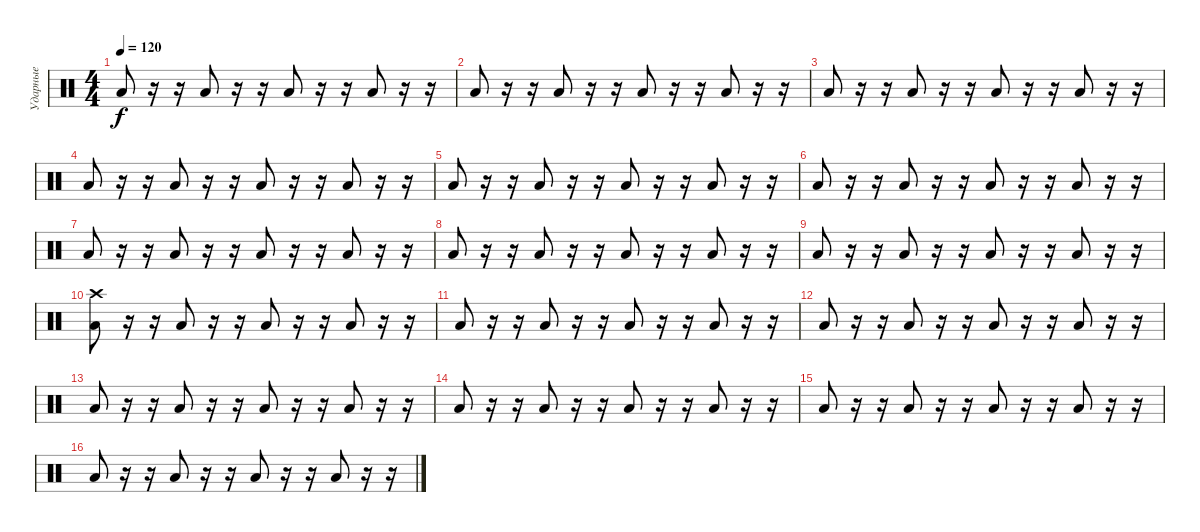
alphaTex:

\track ("Ударные" "Ударные") {instrument percussion}
\staff {score}
\articulation defaults
\ts (4 4)
\tempo 120
\clef neutral
\ks c "Low Floor Tom (hit)".8{dy f}
r.16 r.16 "Low Floor Tom (hit)".8 r.16 r.16 "Low Floor Tom (hit)".8 r.16 r.16 "Low Floor Tom (hit)".8 r.16 r.16 |
"Low Floor Tom (hit)".8 r.16 r.16 "Low Floor Tom (hit)".8 r.16 r.16 "Low Floor Tom (hit)".8 r.16 r.16 "Low Floor Tom (hit)".8 r.16 r.16 |
"Low Floor Tom (hit)".8 r.16 r.16 "Low Floor Tom (hit)".8 r.16 r.16 "Low Floor Tom (hit)".8 r.16 r.16 "Low Floor Tom (hit)".8 r.16 r.16 |
"Low Floor Tom (hit)".8 r.16 r.16 "Low Floor Tom (hit)".8 r.16 r.16 "Low Floor Tom (hit)".8 r.16 r.16 "Low Floor Tom (hit)".8 r.16 r.16 |
"Low Floor Tom (hit)".8 r.16 r.16 "Low Floor Tom (hit)".8 r.16 r.16 "Low Floor Tom (hit)".8 r.16 r.16 "Low Floor Tom (hit)".8 r.16 r.16 |
"Low Floor Tom (hit)".8 r.16 r.16 "Low Floor Tom (hit)".8 r.16 r.16 "Low Floor Tom (hit)".8 r.16 r.16 "Low Floor Tom (hit)".8 r.16 r.16 |
"Low Floor Tom (hit)".8 r.16 r.16 "Low Floor Tom (hit)".8 r.16 r.16 "Low Floor Tom (hit)".8 r.16 r.16 "Low Floor Tom (hit)".8 r.16 r.16 |
"Low Floor Tom (hit)".8 r.16 r.16 "Low Floor Tom (hit)".8 r.16 r.16 "Low Floor Tom (hit)".8 r.16 r.16 "Low Floor Tom (hit)".8 r.16 r.16 |
"Low Floor Tom (hit)".8 r.16 r.16 "Low Floor Tom (hit)".8 r.16 r.16 "Low Floor Tom (hit)".8 r.16 r.16 "Low Floor Tom (hit)".8 r.16 r.16 |
("Crash high (hit)" "Low Floor Tom (hit)").8 r.16 r.16 "Low Floor Tom (hit)".8 r.16 r.16 "Low Floor Tom (hit)".8 r.16 r.16 "Low Floor Tom (hit)".8 r.16 r.16 |
"Low Floor Tom (hit)".8 r.16 r.16 "Low Floor Tom (hit)".8 r.16 r.16 "Low Floor Tom (hit)".8 r.16 r.16 "Low Floor Tom (hit)".8 r.16 r.16 |
"Low Floor Tom (hit)".8 r.16 r.16 "Low Floor Tom (hit)".8 r.16 r.16 "Low Floor Tom (hit)".8 r.16 r.16 "Low Floor Tom (hit)".8 r.16 r.16 |
"Low Floor Tom (hit)".8 r.16 r.16 "Low Floor Tom (hit)".8 r.16 r.16 "Low Floor Tom (hit)".8 r.16 r.16 "Low Floor Tom (hit)".8 r.16 r.16 |
"Low Floor Tom (hit)".8 r.16 r.16 "Low Floor Tom (hit)".8 r.16 r.16 "Low Floor Tom (hit)".8 r.16 r.16 "Low Floor Tom (hit)".8 r.16 r.16 |
"Low Floor Tom (hit)".8 r.16 r.16 "Low Floor Tom (hit)".8 r.16 r.16 "Low Floor Tom (hit)".8 r.16 r.16 "Low Floor Tom (hit)".8 r.16 r.16 |
"Low Floor Tom (hit)".8 r.16 r.16 "Low Floor Tom (hit)".8 r.16 r.16 "Low Floor Tom (hit)".8 r.16 r.16 "Low Floor Tom (hit)".8 r.16 r.16
